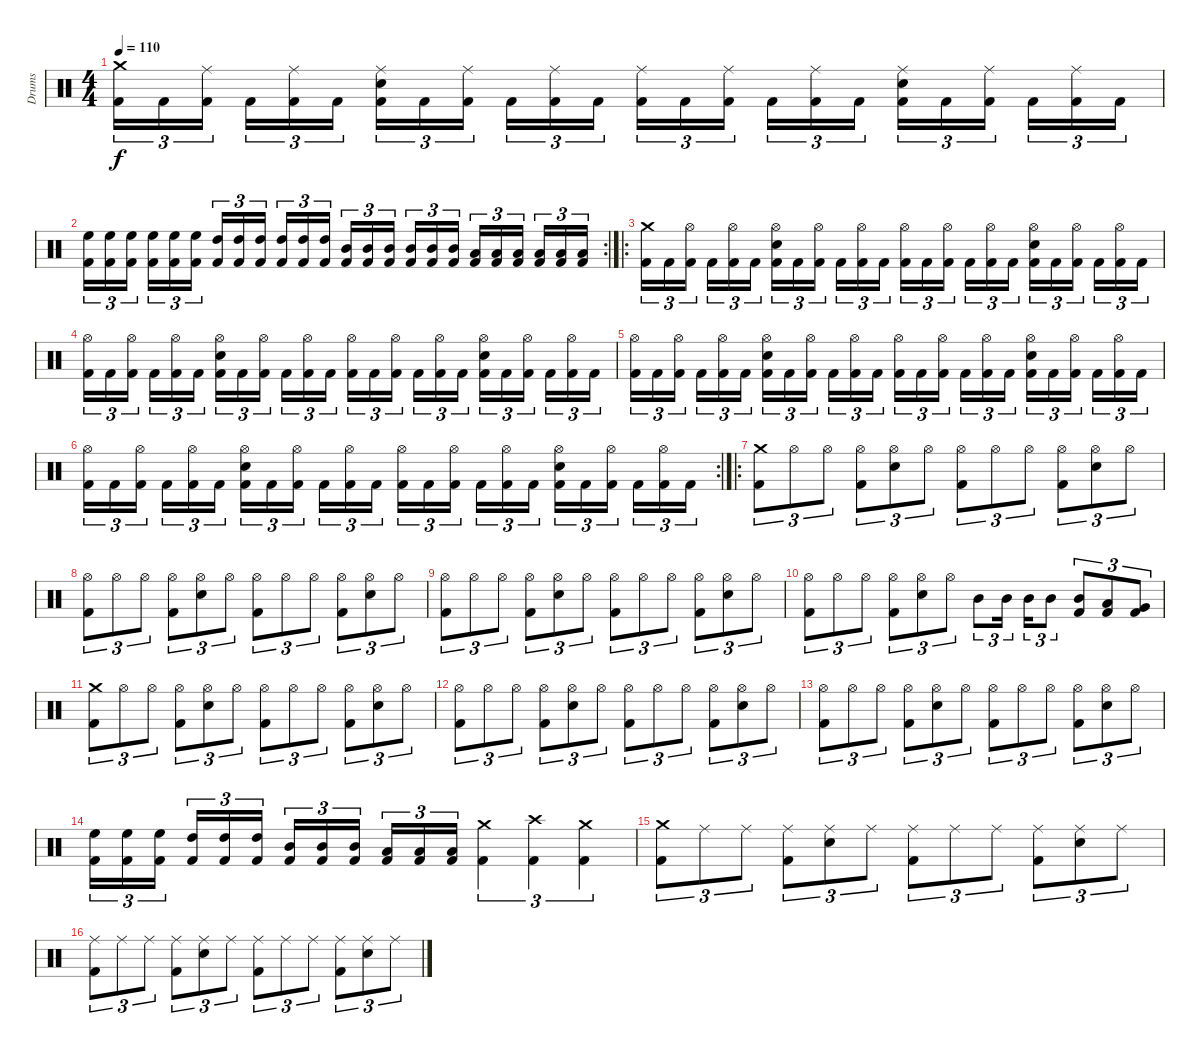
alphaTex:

\track ("Drums" "Drums") {instrument percussion}
\staff {score}
\articulation defaults
\ts (4 4)
\tempo 110
\clef neutral
\ks c
("Kick (hit) 2" "Crash medium (hit)").16{tu (3 2) dy f} "Kick (hit) 2".16{tu (3 2)} ("Kick (hit) 2" "Ride (middle)").16{tu (3 2)} "Kick (hit) 2".16{tu (3 2)} ("Kick (hit) 2" "Ride (middle)").16{tu (3 2)} "Kick (hit) 2".16{tu (3 2)} ("Kick (hit) 2" "Electric Snare (hit)" "Ride (middle)").16{tu (3 2)} "Kick (hit) 2".16{tu (3 2)} ("Kick (hit) 2" "Ride (middle)").16{tu (3 2)} "Kick (hit) 2".16{tu (3 2)} ("Kick (hit) 2" "Ride (middle)").16{tu (3 2)} "Kick (hit) 2".16{tu (3 2)} ("Kick (hit) 2" "Ride (middle)").16{tu (3 2)} "Kick (hit) 2".16{tu (3 2)} ("Kick (hit) 2" "Ride (middle)").16{tu (3 2)} "Kick (hit) 2".16{tu (3 2)} ("Kick (hit) 2" "Ride (middle)").16{tu (3 2)} "Kick (hit) 2".16{tu (3 2)} ("Kick (hit) 2" "Electric Snare (hit)" "Ride (middle)").16{tu (3 2)} "Kick (hit) 2".16{tu (3 2)} ("Kick (hit) 2" "Ride (middle)").16{tu (3 2)} "Kick (hit) 2".16{tu (3 2)} ("Kick (hit) 2" "Ride (middle)").16{tu (3 2)} "Kick (hit) 2".16{tu (3 2)} |
\rc 2
("Kick (hit) 2" "High Floor Tom (hit)").16{tu (3 2)} ("Kick (hit) 2" "High Floor Tom (hit)").16{tu (3 2)} ("Kick (hit) 2" "High Floor Tom (hit)").16{tu (3 2)} ("Kick (hit) 2" "High Floor Tom (hit)").16{tu (3 2)} ("Kick (hit) 2" "High Floor Tom (hit)").16{tu (3 2)} ("Kick (hit) 2" "High Floor Tom (hit)").16{tu (3 2)} ("Kick (hit) 2" "High Tom (hit)").16{tu (3 2)} ("Kick (hit) 2" "High Tom (hit)").16{tu (3 2)} ("Kick (hit) 2" "High Tom (hit)").16{tu (3 2)} ("Kick (hit) 2" "High Tom (hit)").16{tu (3 2)} ("Kick (hit) 2" "High Tom (hit)").16{tu (3 2)} ("Kick (hit) 2" "High Tom (hit)").16{tu (3 2)} ("Kick (hit) 2" "Mid Tom (hit)").16{tu (3 2)} ("Kick (hit) 2" "Mid Tom (hit)").16{tu (3 2)} ("Kick (hit) 2" "Mid Tom (hit)").16{tu (3 2)} ("Kick (hit) 2" "Mid Tom (hit)").16{tu (3 2)} ("Kick (hit) 2" "Mid Tom (hit)").16{tu (3 2)} ("Kick (hit) 2" "Mid Tom (hit)").16{tu (3 2)} ("Kick (hit) 2" "Low Tom (hit)").16{tu (3 2)} ("Kick (hit) 2" "Low Tom (hit)").16{tu (3 2)} ("Kick (hit) 2" "Low Tom (hit)").16{tu (3 2)} ("Kick (hit) 2" "Low Tom (hit)").16{tu (3 2)} ("Kick (hit) 2" "Low Tom (hit)").16{tu (3 2)} ("Kick (hit) 2" "Low Tom (hit)").16{tu (3 2)} |
\ro
("Kick (hit) 2" "Crash medium (hit)").16{tu (3 2)} "Kick (hit) 2".16{tu (3 2)} ("Kick (hit) 2" "Hi-Hat (open)").16{tu (3 2)} "Kick (hit) 2".16{tu (3 2)} ("Kick (hit) 2" "Hi-Hat (open)").16{tu (3 2)} "Kick (hit) 2".16{tu (3 2)} ("Kick (hit) 2" "Electric Snare (hit)" "Hi-Hat (open)").16{tu (3 2)} "Kick (hit) 2".16{tu (3 2)} ("Kick (hit) 2" "Hi-Hat (open)").16{tu (3 2)} "Kick (hit) 2".16{tu (3 2)} ("Kick (hit) 2" "Hi-Hat (open)").16{tu (3 2)} "Kick (hit) 2".16{tu (3 2)} ("Kick (hit) 2" "Hi-Hat (open)").16{tu (3 2)} "Kick (hit) 2".16{tu (3 2)} ("Kick (hit) 2" "Hi-Hat (open)").16{tu (3 2)} "Kick (hit) 2".16{tu (3 2)} ("Kick (hit) 2" "Hi-Hat (open)").16{tu (3 2)} "Kick (hit) 2".16{tu (3 2)} ("Kick (hit) 2" "Electric Snare (hit)" "Hi-Hat (open)").16{tu (3 2)} "Kick (hit) 2".16{tu (3 2)} ("Kick (hit) 2" "Hi-Hat (open)").16{tu (3 2)} "Kick (hit) 2".16{tu (3 2)} ("Kick (hit) 2" "Hi-Hat (open)").16{tu (3 2)} "Kick (hit) 2".16{tu (3 2)} |
("Kick (hit) 2" "Hi-Hat (open)").16{tu (3 2)} "Kick (hit) 2".16{tu (3 2)} ("Kick (hit) 2" "Hi-Hat (open)").16{tu (3 2)} "Kick (hit) 2".16{tu (3 2)} ("Kick (hit) 2" "Hi-Hat (open)").16{tu (3 2)} "Kick (hit) 2".16{tu (3 2)} ("Kick (hit) 2" "Electric Snare (hit)" "Hi-Hat (open)").16{tu (3 2)} "Kick (hit) 2".16{tu (3 2)} ("Kick (hit) 2" "Hi-Hat (open)").16{tu (3 2)} "Kick (hit) 2".16{tu (3 2)} ("Kick (hit) 2" "Hi-Hat (open)").16{tu (3 2)} "Kick (hit) 2".16{tu (3 2)} ("Kick (hit) 2" "Hi-Hat (open)").16{tu (3 2)} "Kick (hit) 2".16{tu (3 2)} ("Kick (hit) 2" "Hi-Hat (open)").16{tu (3 2)} "Kick (hit) 2".16{tu (3 2)} ("Kick (hit) 2" "Hi-Hat (open)").16{tu (3 2)} "Kick (hit) 2".16{tu (3 2)} ("Kick (hit) 2" "Electric Snare (hit)" "Hi-Hat (open)").16{tu (3 2)} "Kick (hit) 2".16{tu (3 2)} ("Kick (hit) 2" "Hi-Hat (open)").16{tu (3 2)} "Kick (hit) 2".16{tu (3 2)} ("Kick (hit) 2" "Hi-Hat (open)").16{tu (3 2)} "Kick (hit) 2".16{tu (3 2)} |
("Kick (hit) 2" "Hi-Hat (open)").16{tu (3 2)} "Kick (hit) 2".16{tu (3 2)} ("Kick (hit) 2" "Hi-Hat (open)").16{tu (3 2)} "Kick (hit) 2".16{tu (3 2)} ("Kick (hit) 2" "Hi-Hat (open)").16{tu (3 2)} "Kick (hit) 2".16{tu (3 2)} ("Kick (hit) 2" "Electric Snare (hit)" "Hi-Hat (open)").16{tu (3 2)} "Kick (hit) 2".16{tu (3 2)} ("Kick (hit) 2" "Hi-Hat (open)").16{tu (3 2)} "Kick (hit) 2".16{tu (3 2)} ("Kick (hit) 2" "Hi-Hat (open)").16{tu (3 2)} "Kick (hit) 2".16{tu (3 2)} ("Kick (hit) 2" "Hi-Hat (open)").16{tu (3 2)} "Kick (hit) 2".16{tu (3 2)} ("Kick (hit) 2" "Hi-Hat (open)").16{tu (3 2)} "Kick (hit) 2".16{tu (3 2)} ("Kick (hit) 2" "Hi-Hat (open)").16{tu (3 2)} "Kick (hit) 2".16{tu (3 2)} ("Kick (hit) 2" "Electric Snare (hit)" "Hi-Hat (open)").16{tu (3 2)} "Kick (hit) 2".16{tu (3 2)} ("Kick (hit) 2" "Hi-Hat (open)").16{tu (3 2)} "Kick (hit) 2".16{tu (3 2)} ("Kick (hit) 2" "Hi-Hat (open)").16{tu (3 2)} "Kick (hit) 2".16{tu (3 2)} |
\rc 2
("Kick (hit) 2" "Hi-Hat (open)").16{tu (3 2)} "Kick (hit) 2".16{tu (3 2)} ("Kick (hit) 2" "Hi-Hat (open)").16{tu (3 2)} "Kick (hit) 2".16{tu (3 2)} ("Kick (hit) 2" "Hi-Hat (open)").16{tu (3 2)} "Kick (hit) 2".16{tu (3 2)} ("Kick (hit) 2" "Electric Snare (hit)" "Hi-Hat (open)").16{tu (3 2)} "Kick (hit) 2".16{tu (3 2)} ("Kick (hit) 2" "Hi-Hat (open)").16{tu (3 2)} "Kick (hit) 2".16{tu (3 2)} ("Kick (hit) 2" "Hi-Hat (open)").16{tu (3 2)} "Kick (hit) 2".16{tu (3 2)} ("Kick (hit) 2" "Hi-Hat (open)").16{tu (3 2)} "Kick (hit) 2".16{tu (3 2)} ("Kick (hit) 2" "Hi-Hat (open)").16{tu (3 2)} "Kick (hit) 2".16{tu (3 2)} ("Kick (hit) 2" "Hi-Hat (open)").16{tu (3 2)} "Kick (hit) 2".16{tu (3 2)} ("Kick (hit) 2" "Electric Snare (hit)" "Hi-Hat (open)").16{tu (3 2)} "Kick (hit) 2".16{tu (3 2)} ("Kick (hit) 2" "Hi-Hat (open)").16{tu (3 2)} "Kick (hit) 2".16{tu (3 2)} ("Kick (hit) 2" "Hi-Hat (open)").16{tu (3 2)} "Kick (hit) 2".16{tu (3 2)} |
\ro
("Kick (hit) 2" "Crash medium (hit)").8{tu (3 2)} "Hi-Hat (open)".8{tu (3 2)} "Hi-Hat (open)".8{tu (3 2)} ("Kick (hit) 2" "Hi-Hat (open)").8{tu (3 2)} ("Electric Snare (hit)" "Hi-Hat (open)").8{tu (3 2)} "Hi-Hat (open)".8{tu (3 2)} ("Kick (hit) 2" "Hi-Hat (open)").8{tu (3 2)} "Hi-Hat (open)".8{tu (3 2)} "Hi-Hat (open)".8{tu (3 2)} ("Kick (hit) 2" "Hi-Hat (open)").8{tu (3 2)} ("Electric Snare (hit)" "Hi-Hat (open)").8{tu (3 2)} "Hi-Hat (open)".8{tu (3 2)} |
("Kick (hit) 2" "Hi-Hat (open)").8{tu (3 2)} "Hi-Hat (open)".8{tu (3 2)} "Hi-Hat (open)".8{tu (3 2)} ("Kick (hit) 2" "Hi-Hat (open)").8{tu (3 2)} ("Electric Snare (hit)" "Hi-Hat (open)").8{tu (3 2)} "Hi-Hat (open)".8{tu (3 2)} ("Kick (hit) 2" "Hi-Hat (open)").8{tu (3 2)} "Hi-Hat (open)".8{tu (3 2)} "Hi-Hat (open)".8{tu (3 2)} ("Kick (hit) 2" "Hi-Hat (open)").8{tu (3 2)} ("Electric Snare (hit)" "Hi-Hat (open)").8{tu (3 2)} "Hi-Hat (open)".8{tu (3 2)} |
("Kick (hit) 2" "Hi-Hat (open)").8{tu (3 2)} "Hi-Hat (open)".8{tu (3 2)} "Hi-Hat (open)".8{tu (3 2)} ("Kick (hit) 2" "Hi-Hat (open)").8{tu (3 2)} ("Electric Snare (hit)" "Hi-Hat (open)").8{tu (3 2)} "Hi-Hat (open)".8{tu (3 2)} ("Kick (hit) 2" "Hi-Hat (open)").8{tu (3 2)} "Hi-Hat (open)".8{tu (3 2)} "Hi-Hat (open)".8{tu (3 2)} ("Kick (hit) 2" "Hi-Hat (open)").8{tu (3 2)} ("Electric Snare (hit)" "Hi-Hat (open)").8{tu (3 2)} "Hi-Hat (open)".8{tu (3 2)} |
("Kick (hit) 2" "Hi-Hat (open)").8{tu (3 2)} "Hi-Hat (open)".8{tu (3 2)} "Hi-Hat (open)".8{tu (3 2)} ("Kick (hit) 2" "Hi-Hat (open)").8{tu (3 2)} ("Electric Snare (hit)" "Hi-Hat (open)").8{tu (3 2)} "Hi-Hat (open)".8{tu (3 2)} "Mid Tom (hit)".8{tu (3 2)} "Mid Tom (hit)".16{tu (3 2)} "Mid Tom (hit)".16{tu (3 2)} "Mid Tom (hit)".8{tu (3 2)} ("Kick (hit) 2" "Mid Tom (hit)").8{tu (3 2)} ("Kick (hit) 2" "Low Tom (hit)").8{tu (3 2)} ("Kick (hit) 2" "Very Low Tom (hit)").8{tu (3 2)} |
("Kick (hit) 2" "Crash medium (hit)").8{tu (3 2)} "Hi-Hat (open)".8{tu (3 2)} "Hi-Hat (open)".8{tu (3 2)} ("Kick (hit) 2" "Hi-Hat (open)").8{tu (3 2)} ("Electric Snare (hit)" "Hi-Hat (open)").8{tu (3 2)} "Hi-Hat (open)".8{tu (3 2)} ("Kick (hit) 2" "Hi-Hat (open)").8{tu (3 2)} "Hi-Hat (open)".8{tu (3 2)} "Hi-Hat (open)".8{tu (3 2)} ("Kick (hit) 2" "Hi-Hat (open)").8{tu (3 2)} ("Electric Snare (hit)" "Hi-Hat (open)").8{tu (3 2)} "Hi-Hat (open)".8{tu (3 2)} |
("Kick (hit) 2" "Hi-Hat (open)").8{tu (3 2)} "Hi-Hat (open)".8{tu (3 2)} "Hi-Hat (open)".8{tu (3 2)} ("Kick (hit) 2" "Hi-Hat (open)").8{tu (3 2)} ("Electric Snare (hit)" "Hi-Hat (open)").8{tu (3 2)} "Hi-Hat (open)".8{tu (3 2)} ("Kick (hit) 2" "Hi-Hat (open)").8{tu (3 2)} "Hi-Hat (open)".8{tu (3 2)} "Hi-Hat (open)".8{tu (3 2)} ("Kick (hit) 2" "Hi-Hat (open)").8{tu (3 2)} ("Electric Snare (hit)" "Hi-Hat (open)").8{tu (3 2)} "Hi-Hat (open)".8{tu (3 2)} |
("Kick (hit) 2" "Hi-Hat (open)").8{tu (3 2)} "Hi-Hat (open)".8{tu (3 2)} "Hi-Hat (open)".8{tu (3 2)} ("Kick (hit) 2" "Hi-Hat (open)").8{tu (3 2)} ("Electric Snare (hit)" "Hi-Hat (open)").8{tu (3 2)} "Hi-Hat (open)".8{tu (3 2)} ("Kick (hit) 2" "Hi-Hat (open)").8{tu (3 2)} "Hi-Hat (open)".8{tu (3 2)} "Hi-Hat (open)".8{tu (3 2)} ("Kick (hit) 2" "Hi-Hat (open)").8{tu (3 2)} ("Electric Snare (hit)" "Hi-Hat (open)").8{tu (3 2)} "Hi-Hat (open)".8{tu (3 2)} |
("Kick (hit) 2" "High Floor Tom (hit)").16{tu (3 2)} ("Kick (hit) 2" "High Floor Tom (hit)").16{tu (3 2)} ("Kick (hit) 2" "High Floor Tom (hit)").16{tu (3 2)} ("Kick (hit) 2" "High Tom (hit)").16{tu (3 2)} ("Kick (hit) 2" "High Tom (hit)").16{tu (3 2)} ("Kick (hit) 2" "High Tom (hit)").16{tu (3 2)} ("Kick (hit) 2" "Mid Tom (hit)").16{tu (3 2)} ("Kick (hit) 2" "Mid Tom (hit)").16{tu (3 2)} ("Kick (hit) 2" "Mid Tom (hit)").16{tu (3 2)} ("Kick (hit) 2" "Low Tom (hit)").16{tu (3 2)} ("Kick (hit) 2" "Low Tom (hit)").16{tu (3 2)} ("Kick (hit) 2" "Low Tom (hit)").16{tu (3 2)} ("Kick (hit) 2" "Crash medium (hit)").4{tu (3 2)} ("Kick (hit) 2" "Crash high (hit)").4{tu (3 2)} ("Kick (hit) 2" "Crash medium (hit)").4{tu (3 2)} |
("Kick (hit) 2" "Crash medium (hit)").8{tu (3 2)} "Ride (middle)".8{tu (3 2)} "Ride (middle)".8{tu (3 2)} ("Kick (hit) 2" "Ride (middle)").8{tu (3 2)} ("Electric Snare (hit)" "Ride (middle)").8{tu (3 2)} "Ride (middle)".8{tu (3 2)} ("Kick (hit) 2" "Ride (middle)").8{tu (3 2)} "Ride (middle)".8{tu (3 2)} "Ride (middle)".8{tu (3 2)} ("Kick (hit) 2" "Ride (middle)").8{tu (3 2)} ("Electric Snare (hit)" "Ride (middle)").8{tu (3 2)} "Ride (middle)".8{tu (3 2)} |
("Kick (hit) 2" "Ride (middle)").8{tu (3 2)} "Ride (middle)".8{tu (3 2)} "Ride (middle)".8{tu (3 2)} ("Kick (hit) 2" "Ride (middle)").8{tu (3 2)} ("Electric Snare (hit)" "Ride (middle)").8{tu (3 2)} "Ride (middle)".8{tu (3 2)} ("Kick (hit) 2" "Ride (middle)").8{tu (3 2)} "Ride (middle)".8{tu (3 2)} "Ride (middle)".8{tu (3 2)} ("Kick (hit) 2" "Ride (middle)").8{tu (3 2)} ("Electric Snare (hit)" "Ride (middle)").8{tu (3 2)} "Ride (middle)".8{tu (3 2)}
